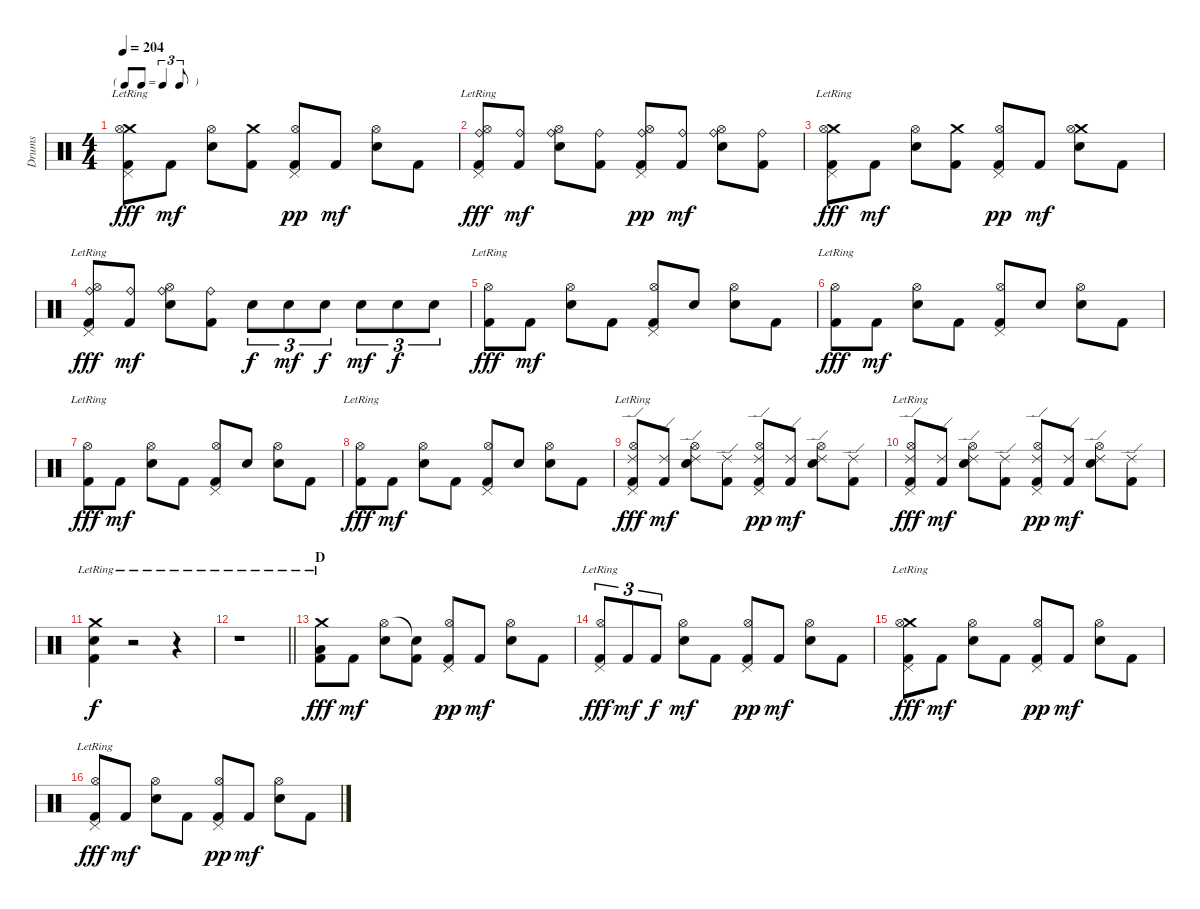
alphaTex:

\track ("Drums" "Drums") {instrument percussion}
\staff {score}
\articulation defaults
\ts (4 4)
\tf triplet8th
\tempo 204
\clef neutral
\ks c
("Crash medium (hit)" "Pedal Hi-Hat (hit)" "Hi-Hat (open)" "Kick (hit) 2"{lr}).8{dy fff} "Kick (hit) 2".8{dy mf} ("Hi-Hat (open)" "Electric Snare (hit)").8 ("Crash medium (hit)" "Kick (hit) 2").8 ("Pedal Hi-Hat (hit)" "Hi-Hat (open)" "Kick (hit) 2").8{dy pp} "Kick (hit) 2".8{dy mf} ("Hi-Hat (open)" "Electric Snare (hit)").8 "Kick (hit) 2".8 |
("Ride (bell)" "Pedal Hi-Hat (hit)" "Hi-Hat (open)" "Kick (hit) 2"{lr}).8{dy fff} ("Ride (bell)" "Kick (hit) 2").8{dy mf} ("Ride (bell)" "Hi-Hat (open)" "Electric Snare (hit)").8 ("Ride (bell)" "Kick (hit) 2").8 ("Ride (bell)" "Pedal Hi-Hat (hit)" "Hi-Hat (open)" "Kick (hit) 2").8{dy pp} ("Ride (bell)" "Kick (hit) 2").8{dy mf} ("Ride (bell)" "Hi-Hat (open)" "Electric Snare (hit)").8 ("Ride (bell)" "Kick (hit) 2").8 |
("Crash medium (hit)" "Pedal Hi-Hat (hit)" "Hi-Hat (open)" "Kick (hit) 2"{lr}).8{dy fff} "Kick (hit) 2".8{dy mf} ("Hi-Hat (open)" "Electric Snare (hit)").8 ("Crash medium (hit)" "Kick (hit) 2").8 ("Pedal Hi-Hat (hit)" "Hi-Hat (open)" "Kick (hit) 2").8{dy pp} "Kick (hit) 2".8{dy mf} ("Crash medium (hit)" "Hi-Hat (open)" "Electric Snare (hit)").8 "Kick (hit) 2".8 |
("Ride (bell)" "Pedal Hi-Hat (hit)" "Hi-Hat (open)" "Kick (hit) 2"{lr}).8{dy fff} ("Ride (bell)" "Kick (hit) 2").8{dy mf} ("Ride (bell)" "Hi-Hat (open)" "Electric Snare (hit)").8 ("Ride (bell)" "Kick (hit) 2").8 "Electric Snare (hit)".8{tu (3 2) dy f} "Electric Snare (hit)".8{tu (3 2) dy mf} "Electric Snare (hit)".8{tu (3 2) dy f} "Electric Snare (hit)".8{tu (3 2) dy mf} "Electric Snare (hit)".8{tu (3 2) dy f} "Electric Snare (hit)".8{tu (3 2)} |
("Hi-Hat (open)" "Kick (hit) 2"{lr}).8{dy fff} "Kick (hit) 2".8{dy mf} ("Hi-Hat (open)" "Electric Snare (hit)").8 "Kick (hit) 2".8 ("Pedal Hi-Hat (hit)" "Hi-Hat (open)" "Kick (hit) 2").8 "Electric Snare (hit)".8 ("Hi-Hat (open)" "Electric Snare (hit)").8 "Kick (hit) 2".8 |
("Hi-Hat (open)" "Kick (hit) 2"{lr}).8{dy fff} "Kick (hit) 2".8{dy mf} ("Hi-Hat (open)" "Electric Snare (hit)").8 "Kick (hit) 2".8 ("Pedal Hi-Hat (hit)" "Hi-Hat (open)" "Kick (hit) 2").8 "Electric Snare (hit)".8 ("Hi-Hat (open)" "Electric Snare (hit)").8 "Kick (hit) 2".8 |
("Hi-Hat (open)" "Kick (hit) 2"{lr}).8{dy fff} "Kick (hit) 2".8{dy mf} ("Hi-Hat (open)" "Electric Snare (hit)").8 "Kick (hit) 2".8 ("Pedal Hi-Hat (hit)" "Hi-Hat (open)" "Kick (hit) 2").8 "Electric Snare (hit)".8 ("Hi-Hat (open)" "Electric Snare (hit)").8 "Kick (hit) 2".8 |
("Hi-Hat (open)" "Kick (hit) 2"{lr}).8{dy fff} "Kick (hit) 2".8{dy mf} ("Hi-Hat (open)" "Electric Snare (hit)").8 "Kick (hit) 2".8 ("Pedal Hi-Hat (hit)" "Hi-Hat (open)" "Kick (hit) 2").8 "Electric Snare (hit)".8 ("Hi-Hat (open)" "Electric Snare (hit)").8 "Kick (hit) 2".8 |
("Ride (edge) 2" "Pedal Hi-Hat (hit)" "Hi-Hat (open)" "Kick (hit) 2"{lr}).8{dy fff} ("Ride (edge) 2" "Kick (hit) 2").8{dy mf} ("Ride (edge) 2" "Hi-Hat (open)" "Electric Snare (hit)").8 ("Ride (edge) 2" "Kick (hit) 2").8 ("Ride (edge) 2" "Pedal Hi-Hat (hit)" "Hi-Hat (open)" "Kick (hit) 2").8{dy pp} ("Ride (edge) 2" "Kick (hit) 2").8{dy mf} ("Ride (edge) 2" "Hi-Hat (open)" "Electric Snare (hit)").8 ("Ride (edge) 2" "Kick (hit) 2").8 |
("Ride (edge) 2" "Pedal Hi-Hat (hit)" "Hi-Hat (open)" "Kick (hit) 2"{lr}).8{dy fff} ("Ride (edge) 2" "Kick (hit) 2").8{dy mf} ("Ride (edge) 2" "Hi-Hat (open)" "Electric Snare (hit)").8 ("Ride (edge) 2" "Kick (hit) 2").8 ("Ride (edge) 2" "Pedal Hi-Hat (hit)" "Hi-Hat (open)" "Kick (hit) 2").8{dy pp} ("Ride (edge) 2" "Kick (hit) 2").8{dy mf} ("Ride (edge) 2" "Hi-Hat (open)" "Electric Snare (hit)").8 ("Ride (edge) 2" "Kick (hit) 2").8 |
("Crash medium (hit)"{lr} "Kick (hit) 2"{lr} "Electric Snare (hit)"{lr}).4{dy f} r.2 r.4 |
\barLineRight lightlight
r.1 |
\section ("" "D")
("Crash medium (hit)" "Low Floor Tom (hit)" "Kick (hit) 2"{lr}).8{dy fff} "Kick (hit) 2".8{dy mf} ("Hi-Hat (open)" "Electric Snare (hit)").8 ("Snare (hit)"{t} "Kick (hit) 2").8 ("Pedal Hi-Hat (hit)" "Hi-Hat (open)" "Kick (hit) 2").8{dy pp} "Kick (hit) 2".8{dy mf} ("Hi-Hat (open)" "Electric Snare (hit)").8 "Kick (hit) 2".8 |
("Pedal Hi-Hat (hit)" "Hi-Hat (open)" "Kick (hit) 2"{lr}).8{tu (3 2) dy fff} "Kick (hit) 2".8{tu (3 2) dy mf} "Kick (hit) 2".8{tu (3 2) dy f} ("Hi-Hat (open)" "Electric Snare (hit)").8{dy mf} "Kick (hit) 2".8 ("Pedal Hi-Hat (hit)" "Hi-Hat (open)" "Kick (hit) 2").8{dy pp} "Kick (hit) 2".8{dy mf} ("Hi-Hat (open)" "Electric Snare (hit)").8 "Kick (hit) 2".8 |
("Crash medium (hit)" "Pedal Hi-Hat (hit)" "Hi-Hat (open)" "Kick (hit) 2"{lr}).8{dy fff} "Kick (hit) 2".8{dy mf} ("Hi-Hat (open)" "Electric Snare (hit)").8 "Kick (hit) 2".8 ("Pedal Hi-Hat (hit)" "Hi-Hat (open)" "Kick (hit) 2").8{dy pp} "Kick (hit) 2".8{dy mf} ("Hi-Hat (open)" "Electric Snare (hit)").8 "Kick (hit) 2".8 |
("Pedal Hi-Hat (hit)" "Hi-Hat (open)" "Kick (hit) 2"{lr}).8{dy fff} "Kick (hit) 2".8{dy mf} ("Hi-Hat (open)" "Electric Snare (hit)").8 "Kick (hit) 2".8 ("Pedal Hi-Hat (hit)" "Hi-Hat (open)" "Kick (hit) 2").8{dy pp} "Kick (hit) 2".8{dy mf} ("Hi-Hat (open)" "Electric Snare (hit)").8 "Kick (hit) 2".8
